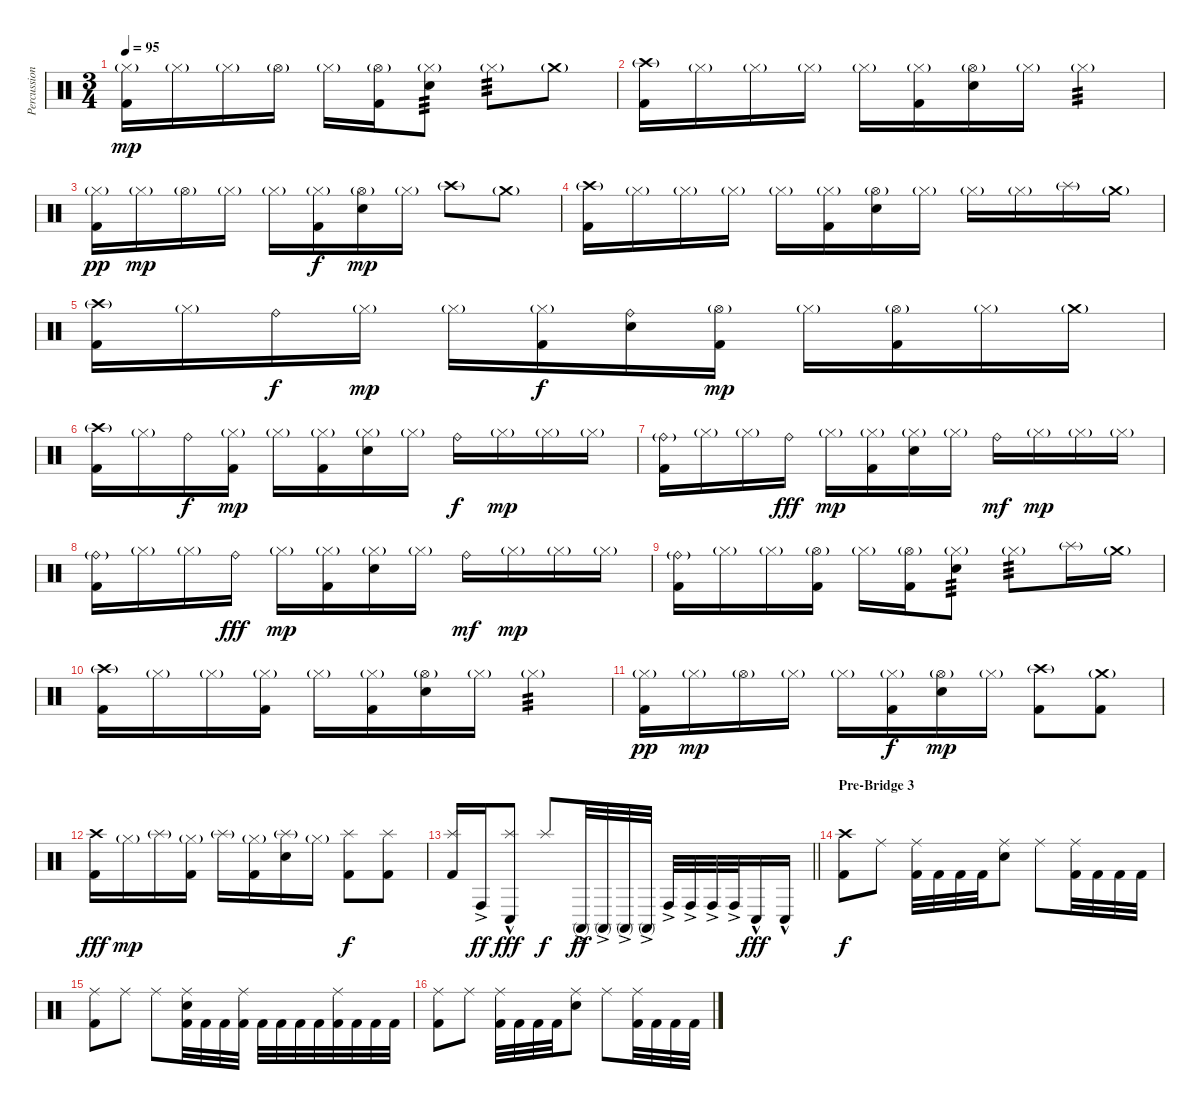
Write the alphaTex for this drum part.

\track ("Percussion Mike" "Percussion") {instrument percussion}
\staff {score}
\articulation defaults
\ts (3 4)
\tempo 95
\clef neutral
\ks c
("Hi-Hat (closed)"{g} "Kick (hit) 2").16{dy mp} "Hi-Hat (closed)"{g}.16 "Hi-Hat (closed)"{g}.16 "Hi-Hat (open)"{g}.16 "Hi-Hat (closed)"{g}.16 ("Hi-Hat (open)"{g} "Kick (hit) 2").16 ("Hi-Hat (closed)"{g} "Snare (hit) 2").8{tp 3} "Hi-Hat (closed)"{g}.8{tp 3} "Crash medium (hit)"{g}.8 |
("Crash high (hit)"{g} "Kick (hit) 2").16 "Hi-Hat (closed)"{g}.16 "Hi-Hat (closed)"{g}.16 "Hi-Hat (closed)"{g}.16 "Hi-Hat (closed)"{g}.16 ("Hi-Hat (closed)"{g} "Kick (hit) 2").16 ("Hi-Hat (open)"{g} "Snare (hit) 2").16 "Hi-Hat (closed)"{g}.16 "Hi-Hat (closed)"{g}.4{tp 3} |
("Hi-Hat (closed)"{g} "Kick (hit) 2").16{dy pp} "Hi-Hat (closed)"{g}.16{dy mp} "Hi-Hat (open)"{g}.16 "Hi-Hat (closed)"{g}.16 "Hi-Hat (closed)"{g}.16 ("Hi-Hat (closed)"{g} "Kick (hit) 2").16{dy f} ("Hi-Hat (open)"{g} "Snare (hit) 2").16{dy mp} "Hi-Hat (closed)"{g}.16 "Crash high (hit)"{g}.8 "Crash medium (hit)"{g}.8 |
("Crash high (hit)"{g} "Kick (hit) 2").16 "Hi-Hat (closed)"{g}.16 "Hi-Hat (closed)"{g}.16 "Hi-Hat (closed)"{g}.16 "Hi-Hat (closed)"{g}.16 ("Hi-Hat (closed)"{g} "Kick (hit) 2").16 ("Hi-Hat (open)"{g} "Snare (hit) 2").16 "Hi-Hat (closed)"{g}.16 "Hi-Hat (closed)"{g}.16 "Hi-Hat (closed)"{g}.16 "Splash (hit)"{g}.16 "Crash medium (hit)"{g}.16 |
("Crash high (hit)"{g} "Kick (hit) 2").16 "Hi-Hat (closed)"{g}.16 "Ride (bell)".16{dy f} "Hi-Hat (closed)"{g}.16{dy mp} "Hi-Hat (closed)"{g}.16 ("Hi-Hat (closed)"{g} "Kick (hit) 2").16{dy f} ("Ride (bell)" "Snare (hit) 2").16 ("Hi-Hat (open)"{g} "Kick (hit) 2").16{dy mp} "Hi-Hat (closed)"{g}.16 ("Hi-Hat (open)"{g} "Kick (hit) 2").16 "Hi-Hat (closed)"{g}.16 "Crash medium (hit)"{g}.16 |
("Crash high (hit)"{g} "Kick (hit) 2").16 "Hi-Hat (closed)"{g}.16 "Ride (bell)".16{dy f} ("Hi-Hat (closed)"{g} "Kick (hit) 2").16{dy mp} "Hi-Hat (closed)"{g}.16 ("Hi-Hat (closed)"{g} "Kick (hit) 2").16 ("Hi-Hat (closed)"{g} "Snare (hit) 2").16 "Hi-Hat (closed)"{g}.16 "Ride (bell)".16{dy f} "Hi-Hat (closed)"{g}.16{dy mp} "Hi-Hat (closed)"{g}.16 "Hi-Hat (closed)"{g}.16 |
("Ride (bell)"{g} "Kick (hit) 2").16 "Hi-Hat (closed)"{g}.16 "Hi-Hat (closed)"{g}.16 "Ride (bell)".16{dy fff} "Hi-Hat (closed)"{g}.16{dy mp} ("Hi-Hat (closed)"{g} "Kick (hit) 2").16 ("Hi-Hat (closed)"{g} "Snare (hit) 2").16 "Hi-Hat (closed)"{g}.16 "Ride (bell)".16{dy mf} "Hi-Hat (closed)"{g}.16{dy mp} "Hi-Hat (closed)"{g}.16 "Hi-Hat (closed)"{g}.16 |
("Ride (bell)"{g} "Kick (hit) 2").16 "Hi-Hat (closed)"{g}.16 "Hi-Hat (closed)"{g}.16 "Ride (bell)".16{dy fff} "Hi-Hat (closed)"{g}.16{dy mp} ("Hi-Hat (closed)"{g} "Kick (hit) 2").16 ("Hi-Hat (closed)"{g} "Snare (hit) 2").16 "Hi-Hat (closed)"{g}.16 "Ride (bell)".16{dy mf} "Hi-Hat (closed)"{g}.16{dy mp} "Hi-Hat (closed)"{g}.16 "Hi-Hat (closed)"{g}.16 |
("Ride (bell)"{g} "Kick (hit) 2").16 "Hi-Hat (closed)"{g}.16 "Hi-Hat (closed)"{g}.16 ("Hi-Hat (open)"{g} "Kick (hit) 2").16 "Hi-Hat (closed)"{g}.16 ("Hi-Hat (open)"{g} "Kick (hit) 2").16 ("Hi-Hat (closed)"{g} "Snare (hit) 2").8{tp 3} "Hi-Hat (closed)"{g}.8{tp 3} "Splash (hit)"{g}.16 "Crash medium (hit)"{g}.16 |
("Crash high (hit)"{g} "Kick (hit) 2").16 "Hi-Hat (closed)"{g}.16 "Hi-Hat (closed)"{g}.16 ("Hi-Hat (closed)"{g} "Kick (hit) 2").16 "Hi-Hat (closed)"{g}.16 ("Hi-Hat (closed)"{g} "Kick (hit) 2").16 ("Hi-Hat (open)"{g} "Snare (hit) 2").16 "Hi-Hat (closed)"{g}.16 "Hi-Hat (closed)"{g}.4{tp 3} |
("Hi-Hat (closed)"{g} "Kick (hit) 2").16{dy pp} "Hi-Hat (closed)"{g}.16{dy mp} "Hi-Hat (open)"{g}.16 "Hi-Hat (closed)"{g}.16 "Hi-Hat (closed)"{g}.16 ("Hi-Hat (closed)"{g} "Kick (hit) 2").16{dy f} ("Hi-Hat (open)"{g} "Snare (hit) 2").16{dy mp} "Hi-Hat (closed)"{g}.16 ("Crash high (hit)"{g} "Kick (hit) 2").8 ("Crash medium (hit)"{g} "Kick (hit) 2").8 |
("Crash high (hit)" "Kick (hit) 2").16{dy fff} "Hi-Hat (closed)"{g}.16{dy mp} "Splash (hit)"{g}.16 ("Hi-Hat (closed)"{g} "Kick (hit) 2").16 "Splash (hit)"{g}.16 ("Hi-Hat (closed)"{g} "Kick (hit) 2").16 ("Splash (hit)"{g} "Snare (hit) 2").16 "Hi-Hat (closed)"{g}.16 ("Splash (hit)" "Kick (hit) 2").8{dy f} ("Splash (hit)" "Kick (hit) 2").8 |
\barLineRight lightlight
("Splash (hit)" "Kick (hit) 2").16 "Conga high (hit)"{ac}.16{dy ff} ("Splash (hit)" "Conga low (hit)"{hac}).8{dy fff} "Splash (hit)".8{dy f} "Conga high (mute)"{ac}.32{dy ff} "Conga high (mute)"{ac}.32 "Conga high (mute)"{ac}.32 "Conga high (mute)"{ac}.32 "Conga high (hit)"{ac}.32 "Conga high (hit)"{ac}.32 "Conga high (hit)"{ac}.32 "Conga high (hit)"{ac}.32 "Conga low (hit)"{hac}.16{dy fff} "Conga low (hit)"{hac}.16 |
\section ("" "Pre-Bridge 3")
("Crash high (hit)" "Kick (hit) 2").8{dy f} "Ride (middle)".8 ("Ride (middle)" "Kick (hit) 2").32 "Kick (hit) 2".32 "Kick (hit) 2".32 "Kick (hit) 2".32 ("Ride (middle)" "Snare (hit) 2").8 "Ride (middle)".8 ("Ride (middle)" "Kick (hit) 2").32 "Kick (hit) 2".32 "Kick (hit) 2".32 "Kick (hit) 2".32 |
("Ride (middle)" "Kick (hit) 2").8 "Ride (middle)".8 "Ride (middle)".8 ("Ride (middle)" "Snare (hit) 2" "Kick (hit) 2").32 "Kick (hit) 2".32 "Kick (hit) 2".32 ("Ride (middle)" "Kick (hit) 2").32 "Kick (hit) 2".32 "Kick (hit) 2".32 "Kick (hit) 2".32 "Kick (hit) 2".32 ("Ride (middle)" "Kick (hit) 2").32 "Kick (hit) 2".32 "Kick (hit) 2".32 "Kick (hit) 2".32 |
("Ride (middle)" "Kick (hit) 2").8 "Ride (middle)".8 ("Ride (middle)" "Kick (hit) 2").32 "Kick (hit) 2".32 "Kick (hit) 2".32 "Kick (hit) 2".32 ("Ride (middle)" "Snare (hit) 2").8 "Ride (middle)".8 ("Ride (middle)" "Kick (hit) 2").32 "Kick (hit) 2".32 "Kick (hit) 2".32 "Kick (hit) 2".32
